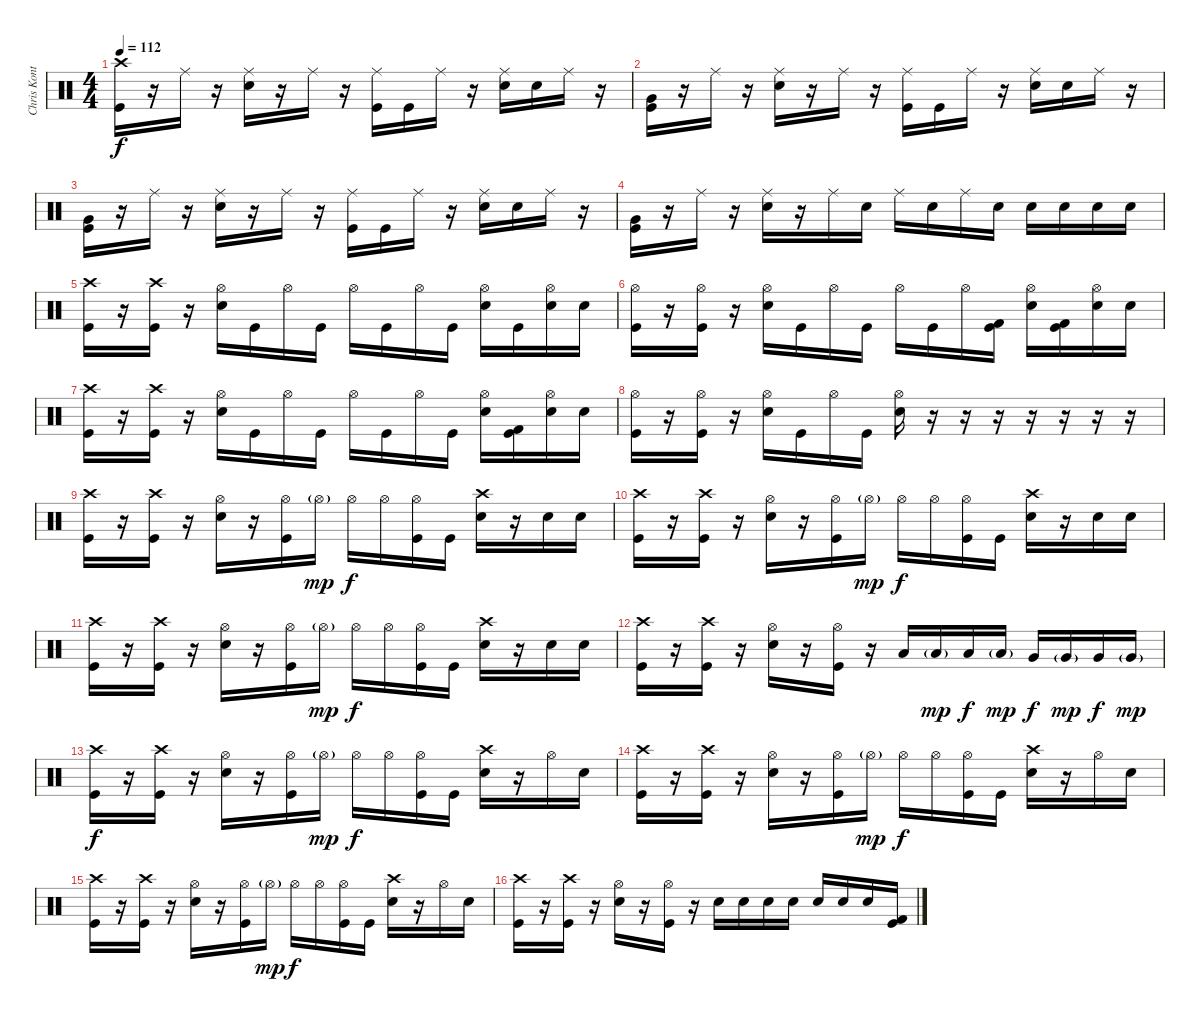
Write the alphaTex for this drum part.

\track ("Chris Kontos - Drums" "Chris Kont") {instrument percussion}
\staff {score}
\articulation defaults
\ts (4 4)
\tempo 112
\clef neutral
\ks c
("Crash high (hit)" "Kick (hit)").16{dy f} r.16 "Ride (middle)".16 r.16 ("Ride (middle)" "Snare (hit) 2").16 r.16 "Ride (middle)".16 r.16 ("Ride (middle)" "Kick (hit)").16 "Kick (hit)".16 "Ride (middle)".16 r.16 ("Ride (middle)" "Snare (hit) 2").16 "Snare (hit) 2".16 "Ride (middle)".16 r.16 |
("Very Low Tom (hit)" "Kick (hit)").16 r.16 "Ride (middle)".16 r.16 ("Ride (middle)" "Snare (hit) 2").16 r.16 "Ride (middle)".16 r.16 ("Ride (middle)" "Kick (hit)").16 "Kick (hit)".16 "Ride (middle)".16 r.16 ("Ride (middle)" "Snare (hit) 2").16 "Snare (hit) 2".16 "Ride (middle)".16 r.16 |
("Very Low Tom (hit)" "Kick (hit)").16 r.16 "Ride (middle)".16 r.16 ("Ride (middle)" "Snare (hit) 2").16 r.16 "Ride (middle)".16 r.16 ("Ride (middle)" "Kick (hit)").16 "Kick (hit)".16 "Ride (middle)".16 r.16 ("Ride (middle)" "Snare (hit) 2").16 "Snare (hit) 2".16 "Ride (middle)".16 r.16 |
("Very Low Tom (hit)" "Kick (hit)").16 r.16 "Ride (middle)".16 r.16 ("Ride (middle)" "Snare (hit) 2").16 r.16 "Ride (middle)".16 "Snare (hit) 2".16 "Ride (middle)".16 "Snare (hit) 2".16 "Ride (middle)".16 "Snare (hit) 2".16 "Snare (hit) 2".16 "Snare (hit) 2".16 "Snare (hit) 2".16 "Snare (hit) 2".16 |
("Crash high (hit)" "Kick (hit)").16 r.16 ("Crash high (hit)" "Kick (hit)").16 r.16 ("Hi-Hat (open)" "Snare (hit) 2").16 "Kick (hit)".16 "Hi-Hat (open)".16 "Kick (hit)".16 "Hi-Hat (open)".16 "Kick (hit)".16 "Hi-Hat (open)".16 "Kick (hit)".16 ("Hi-Hat (open)" "Snare (hit) 2").16 "Kick (hit)".16 ("Hi-Hat (open)" "Snare (hit) 2").16 "Snare (hit) 2".16 |
("Hi-Hat (open)" "Kick (hit)").16 r.16 ("Hi-Hat (open)" "Kick (hit)").16 r.16 ("Hi-Hat (open)" "Snare (hit) 2").16 "Kick (hit)".16 "Hi-Hat (open)".16 "Kick (hit)".16 "Hi-Hat (open)".16 "Kick (hit)".16 "Hi-Hat (open)".16 ("Kick (hit) 2" "Kick (hit)").16 ("Hi-Hat (open)" "Snare (hit) 2").16 ("Kick (hit) 2" "Kick (hit)").16 ("Hi-Hat (open)" "Snare (hit) 2").16 "Snare (hit) 2".16 |
("Crash high (hit)" "Kick (hit)").16 r.16 ("Crash high (hit)" "Kick (hit)").16 r.16 ("Hi-Hat (open)" "Snare (hit) 2").16 "Kick (hit)".16 "Hi-Hat (open)".16 "Kick (hit)".16 "Hi-Hat (open)".16 "Kick (hit)".16 "Hi-Hat (open)".16 "Kick (hit)".16 ("Hi-Hat (open)" "Snare (hit) 2").16 ("Kick (hit) 2" "Kick (hit)").16 ("Hi-Hat (open)" "Snare (hit) 2").16 "Snare (hit) 2".16 |
("Hi-Hat (open)" "Kick (hit)").16 r.16 ("Hi-Hat (open)" "Kick (hit)").16 r.16 ("Hi-Hat (open)" "Snare (hit) 2").16 "Kick (hit)".16 "Hi-Hat (open)".16 "Kick (hit)".16 ("Hi-Hat (open)" "Snare (hit) 2").16 r.16 r.16 r.16 r.16 r.16 r.16 r.16 |
("Crash high (hit)" "Kick (hit)").16 r.16 ("Crash high (hit)" "Kick (hit)").16 r.16 ("Hi-Hat (open)" "Snare (hit) 2").16 r.16 ("Hi-Hat (open)" "Kick (hit)").16 "Hi-Hat (open)"{g}.16{dy mp} "Hi-Hat (open)".16{dy f} "Hi-Hat (open)".16 ("Hi-Hat (open)" "Kick (hit)").16 "Kick (hit)".16 ("Crash high (hit)" "Snare (hit) 2").16 r.16 "Snare (hit) 2".16 "Snare (hit) 2".16 |
("Crash high (hit)" "Kick (hit)").16 r.16 ("Crash high (hit)" "Kick (hit)").16 r.16 ("Hi-Hat (open)" "Snare (hit) 2").16 r.16 ("Hi-Hat (open)" "Kick (hit)").16 "Hi-Hat (open)"{g}.16{dy mp} "Hi-Hat (open)".16{dy f} "Hi-Hat (open)".16 ("Hi-Hat (open)" "Kick (hit)").16 "Kick (hit)".16 ("Crash high (hit)" "Snare (hit) 2").16 r.16 "Snare (hit) 2".16 "Snare (hit) 2".16 |
("Crash high (hit)" "Kick (hit)").16 r.16 ("Crash high (hit)" "Kick (hit)").16 r.16 ("Hi-Hat (open)" "Snare (hit) 2").16 r.16 ("Hi-Hat (open)" "Kick (hit)").16 "Hi-Hat (open)"{g}.16{dy mp} "Hi-Hat (open)".16{dy f} "Hi-Hat (open)".16 ("Hi-Hat (open)" "Kick (hit)").16 "Kick (hit)".16 ("Crash high (hit)" "Snare (hit) 2").16 r.16 "Snare (hit) 2".16 "Snare (hit) 2".16 |
("Crash high (hit)" "Kick (hit)").16 r.16 ("Crash high (hit)" "Kick (hit)").16 r.16 ("Hi-Hat (open)" "Snare (hit) 2").16 r.16 ("Hi-Hat (open)" "Kick (hit)").16 r.16 "Low Tom (hit)".16 "Low Tom (hit)"{g}.16{dy mp} "Low Tom (hit)".16{dy f} "Low Tom (hit)"{g}.16{dy mp} "Very Low Tom (hit)".16{dy f} "Very Low Tom (hit)"{g}.16{dy mp} "Very Low Tom (hit)".16{dy f} "Very Low Tom (hit)"{g}.16{dy mp} |
("Crash high (hit)" "Kick (hit)").16{dy f} r.16 ("Crash high (hit)" "Kick (hit)").16 r.16 ("Hi-Hat (open)" "Snare (hit) 2").16 r.16 ("Hi-Hat (open)" "Kick (hit)").16 "Hi-Hat (open)"{g}.16{dy mp} "Hi-Hat (open)".16{dy f} "Hi-Hat (open)".16 ("Hi-Hat (open)" "Kick (hit)").16 "Kick (hit)".16 ("Crash high (hit)" "Snare (hit) 2").16 r.16 "Hi-Hat (open)".16 "Snare (hit) 2".16 |
("Crash high (hit)" "Kick (hit)").16 r.16 ("Crash high (hit)" "Kick (hit)").16 r.16 ("Hi-Hat (open)" "Snare (hit) 2").16 r.16 ("Hi-Hat (open)" "Kick (hit)").16 "Hi-Hat (open)"{g}.16{dy mp} "Hi-Hat (open)".16{dy f} "Hi-Hat (open)".16 ("Hi-Hat (open)" "Kick (hit)").16 "Kick (hit)".16 ("Crash high (hit)" "Snare (hit) 2").16 r.16 "Hi-Hat (open)".16 "Snare (hit) 2".16 |
("Crash high (hit)" "Kick (hit)").16 r.16 ("Crash high (hit)" "Kick (hit)").16 r.16 ("Hi-Hat (open)" "Snare (hit) 2").16 r.16 ("Hi-Hat (open)" "Kick (hit)").16 "Hi-Hat (open)"{g}.16{dy mp} "Hi-Hat (open)".16{dy f} "Hi-Hat (open)".16 ("Hi-Hat (open)" "Kick (hit)").16 "Kick (hit)".16 ("Crash high (hit)" "Snare (hit) 2").16 r.16 "Hi-Hat (open)".16 "Snare (hit) 2".16 |
("Crash high (hit)" "Kick (hit)").16 r.16 ("Crash high (hit)" "Kick (hit)").16 r.16 ("Hi-Hat (open)" "Snare (hit) 2").16 r.16 ("Hi-Hat (open)" "Kick (hit)").16 r.16 "Snare (hit) 2".16 "Snare (hit) 2".16 "Snare (hit) 2".16 "Snare (hit) 2".16 "Snare (hit) 2".16 "Snare (hit) 2".16 "Snare (hit) 2".16 ("Kick (hit) 2" "Kick (hit)").16
